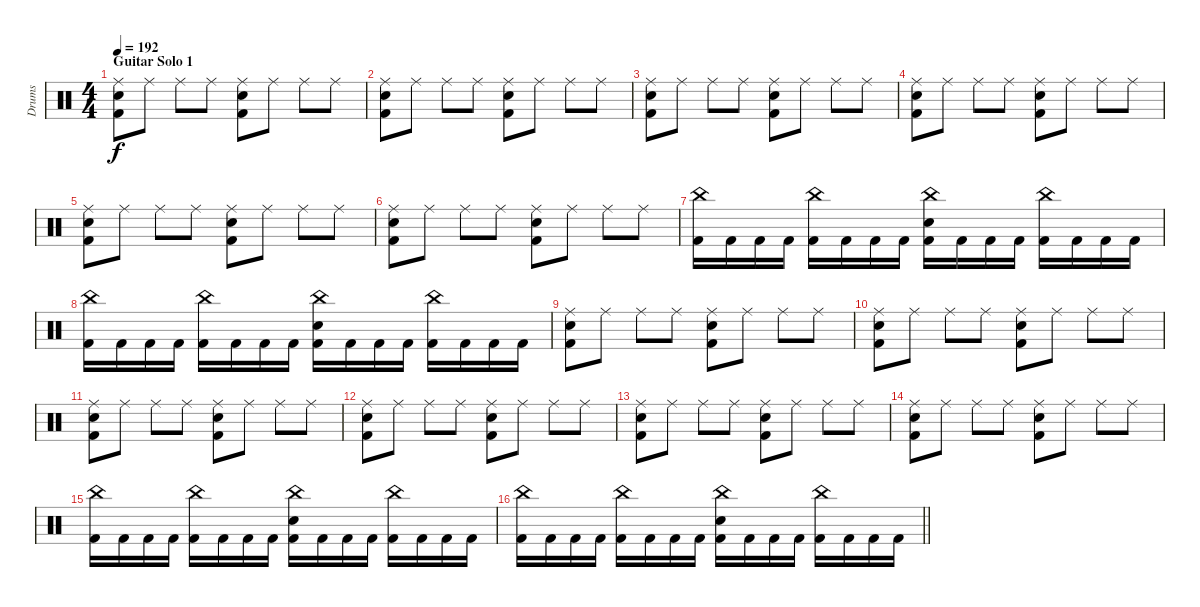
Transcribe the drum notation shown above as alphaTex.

\track ("Drums" "Drums") {instrument percussion}
\staff {score}
\articulation defaults
\ts (4 4)
\section ("" "Guitar Solo 1")
\tempo 192
\clef neutral
\ks c
("Ride (middle)" "Electric Snare (hit)" "Kick (hit) 2").8{dy f} "Ride (middle)".8 "Ride (middle)".8 "Ride (middle)".8 ("Ride (middle)" "Electric Snare (hit)" "Kick (hit) 2").8 "Ride (middle)".8 "Ride (middle)".8 "Ride (middle)".8 |
("Ride (middle)" "Electric Snare (hit)" "Kick (hit) 2").8 "Ride (middle)".8 "Ride (middle)".8 "Ride (middle)".8 ("Ride (middle)" "Electric Snare (hit)" "Kick (hit) 2").8 "Ride (middle)".8 "Ride (middle)".8 "Ride (middle)".8 |
("Ride (middle)" "Electric Snare (hit)" "Kick (hit) 2").8 "Ride (middle)".8 "Ride (middle)".8 "Ride (middle)".8 ("Ride (middle)" "Electric Snare (hit)" "Kick (hit) 2").8 "Ride (middle)".8 "Ride (middle)".8 "Ride (middle)".8 |
("Ride (middle)" "Electric Snare (hit)" "Kick (hit) 2").8 "Ride (middle)".8 "Ride (middle)".8 "Ride (middle)".8 ("Ride (middle)" "Electric Snare (hit)" "Kick (hit) 2").8 "Ride (middle)".8 "Ride (middle)".8 "Ride (middle)".8 |
("Ride (middle)" "Electric Snare (hit)" "Kick (hit) 2").8 "Ride (middle)".8 "Ride (middle)".8 "Ride (middle)".8 ("Ride (middle)" "Electric Snare (hit)" "Kick (hit) 2").8 "Ride (middle)".8 "Ride (middle)".8 "Ride (middle)".8 |
("Ride (middle)" "Electric Snare (hit)" "Kick (hit) 2").8 "Ride (middle)".8 "Ride (middle)".8 "Ride (middle)".8 ("Ride (middle)" "Electric Snare (hit)" "Kick (hit) 2").8 "Ride (middle)".8 "Ride (middle)".8 "Ride (middle)".8 |
("China (hit)" "Kick (hit) 2").16 "Kick (hit) 2".16 "Kick (hit) 2".16 "Kick (hit) 2".16 ("China (hit)" "Kick (hit) 2").16 "Kick (hit) 2".16 "Kick (hit) 2".16 "Kick (hit) 2".16 ("China (hit)" "Electric Snare (hit)" "Kick (hit) 2").16 "Kick (hit) 2".16 "Kick (hit) 2".16 "Kick (hit) 2".16 ("China (hit)" "Kick (hit) 2").16 "Kick (hit) 2".16 "Kick (hit) 2".16 "Kick (hit) 2".16 |
("China (hit)" "Kick (hit) 2").16 "Kick (hit) 2".16 "Kick (hit) 2".16 "Kick (hit) 2".16 ("China (hit)" "Kick (hit) 2").16 "Kick (hit) 2".16 "Kick (hit) 2".16 "Kick (hit) 2".16 ("China (hit)" "Electric Snare (hit)" "Kick (hit) 2").16 "Kick (hit) 2".16 "Kick (hit) 2".16 "Kick (hit) 2".16 ("China (hit)" "Kick (hit) 2").16 "Kick (hit) 2".16 "Kick (hit) 2".16 "Kick (hit) 2".16 |
("Ride (middle)" "Electric Snare (hit)" "Kick (hit) 2").8 "Ride (middle)".8 "Ride (middle)".8 "Ride (middle)".8 ("Ride (middle)" "Electric Snare (hit)" "Kick (hit) 2").8 "Ride (middle)".8 "Ride (middle)".8 "Ride (middle)".8 |
("Ride (middle)" "Electric Snare (hit)" "Kick (hit) 2").8 "Ride (middle)".8 "Ride (middle)".8 "Ride (middle)".8 ("Ride (middle)" "Electric Snare (hit)" "Kick (hit) 2").8 "Ride (middle)".8 "Ride (middle)".8 "Ride (middle)".8 |
("Ride (middle)" "Electric Snare (hit)" "Kick (hit) 2").8 "Ride (middle)".8 "Ride (middle)".8 "Ride (middle)".8 ("Ride (middle)" "Electric Snare (hit)" "Kick (hit) 2").8 "Ride (middle)".8 "Ride (middle)".8 "Ride (middle)".8 |
("Ride (middle)" "Electric Snare (hit)" "Kick (hit) 2").8 "Ride (middle)".8 "Ride (middle)".8 "Ride (middle)".8 ("Ride (middle)" "Electric Snare (hit)" "Kick (hit) 2").8 "Ride (middle)".8 "Ride (middle)".8 "Ride (middle)".8 |
("Ride (middle)" "Electric Snare (hit)" "Kick (hit) 2").8 "Ride (middle)".8 "Ride (middle)".8 "Ride (middle)".8 ("Ride (middle)" "Electric Snare (hit)" "Kick (hit) 2").8 "Ride (middle)".8 "Ride (middle)".8 "Ride (middle)".8 |
("Ride (middle)" "Electric Snare (hit)" "Kick (hit) 2").8 "Ride (middle)".8 "Ride (middle)".8 "Ride (middle)".8 ("Ride (middle)" "Electric Snare (hit)" "Kick (hit) 2").8 "Ride (middle)".8 "Ride (middle)".8 "Ride (middle)".8 |
("China (hit)" "Kick (hit) 2").16 "Kick (hit) 2".16 "Kick (hit) 2".16 "Kick (hit) 2".16 ("China (hit)" "Kick (hit) 2").16 "Kick (hit) 2".16 "Kick (hit) 2".16 "Kick (hit) 2".16 ("China (hit)" "Electric Snare (hit)" "Kick (hit) 2").16 "Kick (hit) 2".16 "Kick (hit) 2".16 "Kick (hit) 2".16 ("China (hit)" "Kick (hit) 2").16 "Kick (hit) 2".16 "Kick (hit) 2".16 "Kick (hit) 2".16 |
\barLineRight lightlight
("China (hit)" "Kick (hit) 2").16 "Kick (hit) 2".16 "Kick (hit) 2".16 "Kick (hit) 2".16 ("China (hit)" "Kick (hit) 2").16 "Kick (hit) 2".16 "Kick (hit) 2".16 "Kick (hit) 2".16 ("China (hit)" "Electric Snare (hit)" "Kick (hit) 2").16 "Kick (hit) 2".16 "Kick (hit) 2".16 "Kick (hit) 2".16 ("China (hit)" "Kick (hit) 2").16 "Kick (hit) 2".16 "Kick (hit) 2".16 "Kick (hit) 2".16
